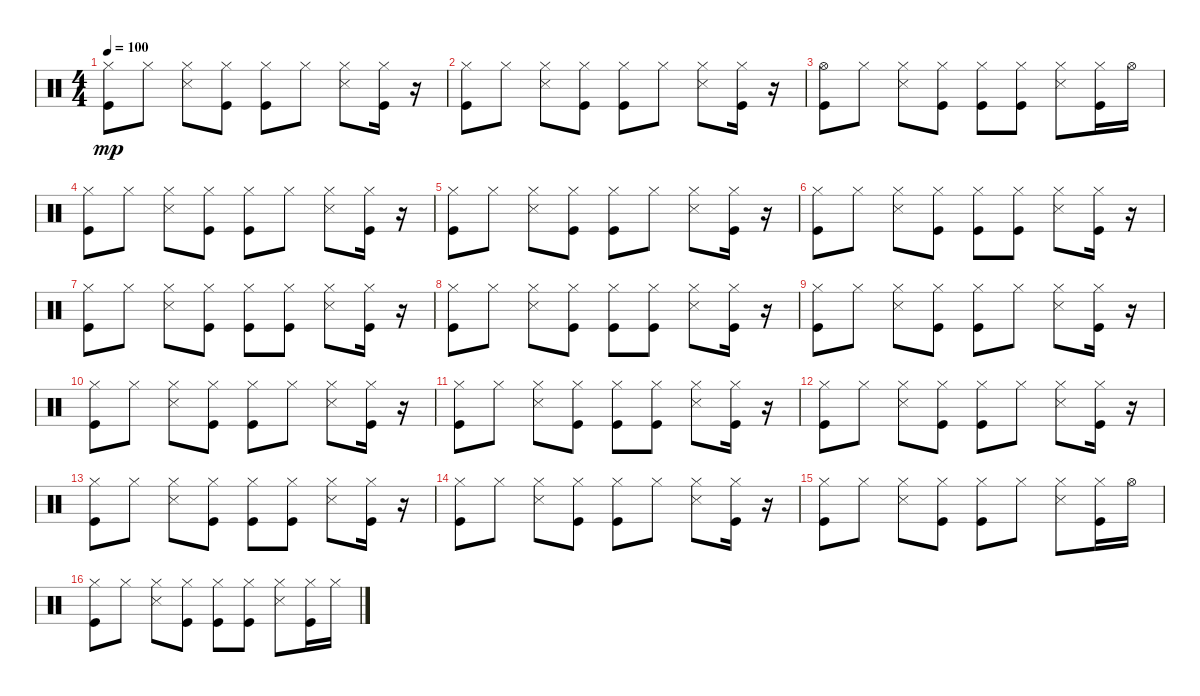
\track "" {instrument percussion}
\staff {score}
\articulation defaults
\ts (4 4)
\tempo 100
\clef neutral
\ks c
("Kick (hit)" "Hi-Hat (closed)").8{dy mp} "Hi-Hat (closed)".8 ("Snare (side stick) 3" "Hi-Hat (closed)").8 ("Kick (hit)" "Hi-Hat (closed)").8 ("Kick (hit)" "Hi-Hat (closed)").8 "Hi-Hat (closed)".8 ("Snare (side stick) 3" "Hi-Hat (closed)").8 ("Kick (hit)" "Hi-Hat (closed)").16 r.16 |
("Kick (hit)" "Hi-Hat (closed)").8 "Hi-Hat (closed)".8 ("Snare (side stick) 3" "Hi-Hat (closed)").8 ("Kick (hit)" "Hi-Hat (closed)").8 ("Kick (hit)" "Hi-Hat (closed)").8 "Hi-Hat (closed)".8 ("Snare (side stick) 3" "Hi-Hat (closed)").8 ("Kick (hit)" "Hi-Hat (closed)").16 r.16 |
("Kick (hit)" "Hi-Hat (open)").8 "Hi-Hat (closed)".8 ("Snare (side stick) 3" "Hi-Hat (closed)").8 ("Kick (hit)" "Hi-Hat (closed)").8 ("Kick (hit)" "Hi-Hat (closed)").8 ("Kick (hit)" "Hi-Hat (closed)").8 ("Snare (side stick) 3" "Hi-Hat (closed)").8 ("Kick (hit)" "Hi-Hat (closed)").16 "Hi-Hat (open)".16 |
("Kick (hit)" "Hi-Hat (closed)").8 "Hi-Hat (closed)".8 ("Snare (side stick) 3" "Hi-Hat (closed)").8 ("Kick (hit)" "Hi-Hat (closed)").8 ("Kick (hit)" "Hi-Hat (closed)").8 "Hi-Hat (closed)".8 ("Snare (side stick) 3" "Hi-Hat (closed)").8 ("Kick (hit)" "Hi-Hat (closed)").16 r.16 |
("Kick (hit)" "Hi-Hat (closed)").8 "Hi-Hat (closed)".8 ("Snare (side stick) 3" "Hi-Hat (closed)").8 ("Kick (hit)" "Hi-Hat (closed)").8 ("Kick (hit)" "Hi-Hat (closed)").8 "Hi-Hat (closed)".8 ("Snare (side stick) 3" "Hi-Hat (closed)").8 ("Kick (hit)" "Hi-Hat (closed)").16 r.16 |
("Kick (hit)" "Hi-Hat (closed)").8 "Hi-Hat (closed)".8 ("Snare (side stick) 3" "Hi-Hat (closed)").8 ("Kick (hit)" "Hi-Hat (closed)").8 ("Kick (hit)" "Hi-Hat (closed)").8 ("Kick (hit)" "Hi-Hat (closed)").8 ("Snare (side stick) 3" "Hi-Hat (closed)").8 ("Kick (hit)" "Hi-Hat (closed)").16 r.16 |
("Kick (hit)" "Hi-Hat (closed)").8 "Hi-Hat (closed)".8 ("Snare (side stick) 3" "Hi-Hat (closed)").8 ("Kick (hit)" "Hi-Hat (closed)").8 ("Kick (hit)" "Hi-Hat (closed)").8 ("Kick (hit)" "Hi-Hat (closed)").8 ("Snare (side stick) 3" "Hi-Hat (closed)").8 ("Kick (hit)" "Hi-Hat (closed)").16 r.16 |
("Kick (hit)" "Hi-Hat (closed)").8 "Hi-Hat (closed)".8 ("Snare (side stick) 3" "Hi-Hat (closed)").8 ("Kick (hit)" "Hi-Hat (closed)").8 ("Kick (hit)" "Hi-Hat (closed)").8 ("Kick (hit)" "Hi-Hat (closed)").8 ("Snare (side stick) 3" "Hi-Hat (closed)").8 ("Kick (hit)" "Hi-Hat (closed)").16 r.16 |
("Kick (hit)" "Hi-Hat (closed)").8 "Hi-Hat (closed)".8 ("Snare (side stick) 3" "Hi-Hat (closed)").8 ("Kick (hit)" "Hi-Hat (closed)").8 ("Kick (hit)" "Hi-Hat (closed)").8 "Hi-Hat (closed)".8 ("Snare (side stick) 3" "Hi-Hat (closed)").8 ("Kick (hit)" "Hi-Hat (closed)").16 r.16 |
("Kick (hit)" "Hi-Hat (closed)").8 "Hi-Hat (closed)".8 ("Snare (side stick) 3" "Hi-Hat (closed)").8 ("Kick (hit)" "Hi-Hat (closed)").8 ("Kick (hit)" "Hi-Hat (closed)").8 "Hi-Hat (closed)".8 ("Snare (side stick) 3" "Hi-Hat (closed)").8 ("Kick (hit)" "Hi-Hat (closed)").16 r.16 |
("Kick (hit)" "Hi-Hat (closed)").8 "Hi-Hat (closed)".8 ("Snare (side stick) 3" "Hi-Hat (closed)").8 ("Kick (hit)" "Hi-Hat (closed)").8 ("Kick (hit)" "Hi-Hat (closed)").8 ("Kick (hit)" "Hi-Hat (closed)").8 ("Snare (side stick) 3" "Hi-Hat (closed)").8 ("Kick (hit)" "Hi-Hat (closed)").16 r.16 |
("Kick (hit)" "Hi-Hat (closed)").8 "Hi-Hat (closed)".8 ("Snare (side stick) 3" "Hi-Hat (closed)").8 ("Kick (hit)" "Hi-Hat (closed)").8 ("Kick (hit)" "Hi-Hat (closed)").8 "Hi-Hat (closed)".8 ("Snare (side stick) 3" "Hi-Hat (closed)").8 ("Kick (hit)" "Hi-Hat (closed)").16 r.16 |
("Kick (hit)" "Hi-Hat (closed)").8 "Hi-Hat (closed)".8 ("Snare (side stick) 3" "Hi-Hat (closed)").8 ("Kick (hit)" "Hi-Hat (closed)").8 ("Kick (hit)" "Hi-Hat (closed)").8 ("Kick (hit)" "Hi-Hat (closed)").8 ("Snare (side stick) 3" "Hi-Hat (closed)").8 ("Kick (hit)" "Hi-Hat (closed)").16 r.16 |
("Kick (hit)" "Hi-Hat (closed)").8 "Hi-Hat (closed)".8 ("Snare (side stick) 3" "Hi-Hat (closed)").8 ("Kick (hit)" "Hi-Hat (closed)").8 ("Kick (hit)" "Hi-Hat (closed)").8 "Hi-Hat (closed)".8 ("Snare (side stick) 3" "Hi-Hat (closed)").8 ("Kick (hit)" "Hi-Hat (closed)").16 r.16 |
("Kick (hit)" "Hi-Hat (closed)").8 "Hi-Hat (closed)".8 ("Snare (side stick) 3" "Hi-Hat (closed)").8 ("Kick (hit)" "Hi-Hat (closed)").8 ("Kick (hit)" "Hi-Hat (closed)").8 "Hi-Hat (closed)".8 ("Snare (side stick) 3" "Hi-Hat (closed)").8 ("Kick (hit)" "Hi-Hat (closed)").16 "Hi-Hat (open)".16 |
("Kick (hit)" "Hi-Hat (closed)").8 "Hi-Hat (closed)".8 ("Snare (side stick) 3" "Hi-Hat (closed)").8 ("Kick (hit)" "Hi-Hat (closed)").8 ("Kick (hit)" "Hi-Hat (closed)").8 ("Kick (hit)" "Hi-Hat (closed)").8 ("Snare (side stick) 3" "Hi-Hat (closed)").8 ("Kick (hit)" "Hi-Hat (closed)").16 "Hi-Hat (closed)".16
